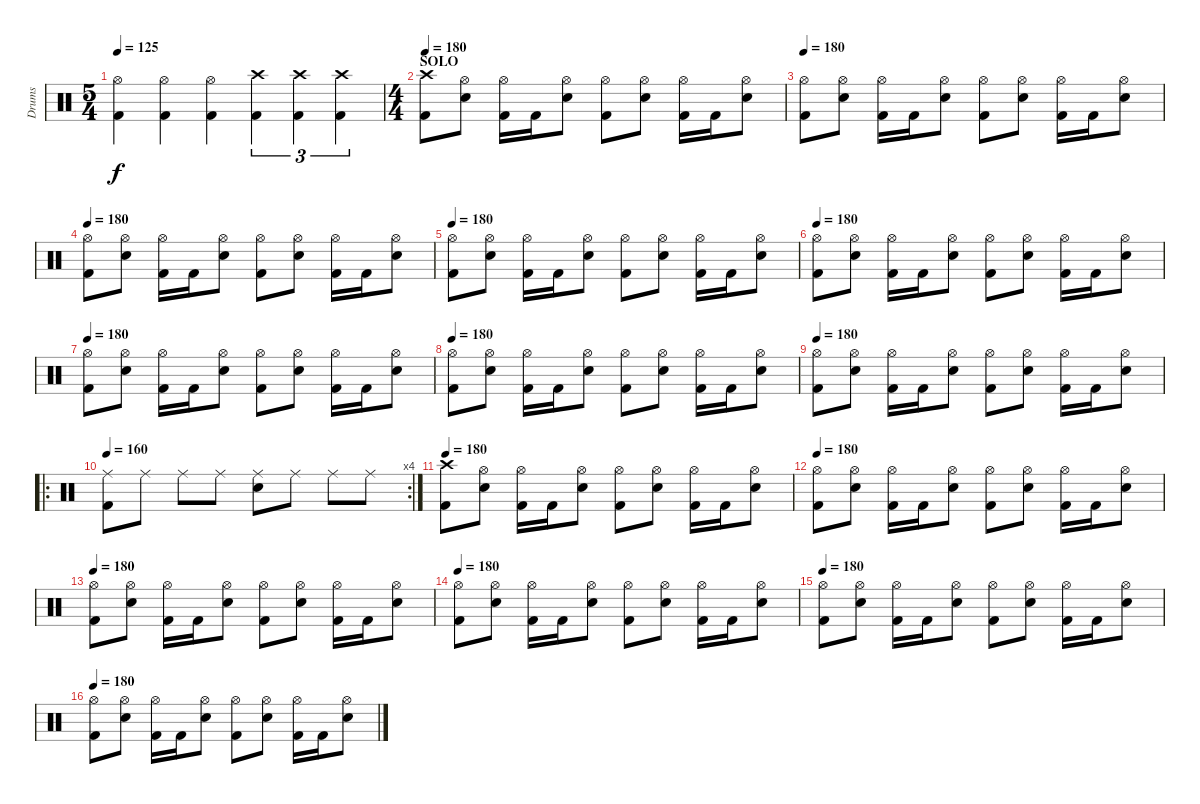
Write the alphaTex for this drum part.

\track ("Drums" "Drums") {instrument percussion}
\staff {score}
\articulation defaults
\ts (5 4)
\tempo 125
\clef neutral
\ks c
("Hi-Hat (open)" "Kick (hit) 2").4{dy f} ("Hi-Hat (open)" "Kick (hit) 2").4 ("Hi-Hat (open)" "Kick (hit) 2").4 ("Crash high (hit)" "Kick (hit) 2").4{tu (3 2)} ("Crash high (hit)" "Kick (hit) 2").4{tu (3 2)} ("Crash high (hit)" "Kick (hit) 2").4{tu (3 2)} |
\ts (4 4)
\section ("" "SOLO")
\tempo 180
("Crash high (hit)" "Kick (hit) 2").8 ("Hi-Hat (open)" "Electric Snare (hit)").8 ("Hi-Hat (open)" "Kick (hit) 2").16 "Kick (hit) 2".16 ("Hi-Hat (open)" "Electric Snare (hit)").8 ("Hi-Hat (open)" "Kick (hit) 2").8 ("Hi-Hat (open)" "Electric Snare (hit)").8 ("Hi-Hat (open)" "Kick (hit) 2").16 "Kick (hit) 2".16 ("Hi-Hat (open)" "Electric Snare (hit)").8 |
\tempo 180
("Hi-Hat (open)" "Kick (hit) 2").8 ("Hi-Hat (open)" "Electric Snare (hit)").8 ("Hi-Hat (open)" "Kick (hit) 2").16 "Kick (hit) 2".16 ("Hi-Hat (open)" "Electric Snare (hit)").8 ("Hi-Hat (open)" "Kick (hit) 2").8 ("Hi-Hat (open)" "Electric Snare (hit)").8 ("Hi-Hat (open)" "Kick (hit) 2").16 "Kick (hit) 2".16 ("Hi-Hat (open)" "Electric Snare (hit)").8 |
\tempo 180
("Hi-Hat (open)" "Kick (hit) 2").8 ("Hi-Hat (open)" "Electric Snare (hit)").8 ("Hi-Hat (open)" "Kick (hit) 2").16 "Kick (hit) 2".16 ("Hi-Hat (open)" "Electric Snare (hit)").8 ("Hi-Hat (open)" "Kick (hit) 2").8 ("Hi-Hat (open)" "Electric Snare (hit)").8 ("Hi-Hat (open)" "Kick (hit) 2").16 "Kick (hit) 2".16 ("Hi-Hat (open)" "Electric Snare (hit)").8 |
\tempo 180
("Hi-Hat (open)" "Kick (hit) 2").8 ("Hi-Hat (open)" "Electric Snare (hit)").8 ("Hi-Hat (open)" "Kick (hit) 2").16 "Kick (hit) 2".16 ("Hi-Hat (open)" "Electric Snare (hit)").8 ("Hi-Hat (open)" "Kick (hit) 2").8 ("Hi-Hat (open)" "Electric Snare (hit)").8 ("Hi-Hat (open)" "Kick (hit) 2").16 "Kick (hit) 2".16 ("Hi-Hat (open)" "Electric Snare (hit)").8 |
\tempo 180
("Hi-Hat (open)" "Kick (hit) 2").8 ("Hi-Hat (open)" "Electric Snare (hit)").8 ("Hi-Hat (open)" "Kick (hit) 2").16 "Kick (hit) 2".16 ("Hi-Hat (open)" "Electric Snare (hit)").8 ("Hi-Hat (open)" "Kick (hit) 2").8 ("Hi-Hat (open)" "Electric Snare (hit)").8 ("Hi-Hat (open)" "Kick (hit) 2").16 "Kick (hit) 2".16 ("Hi-Hat (open)" "Electric Snare (hit)").8 |
\tempo 180
("Hi-Hat (open)" "Kick (hit) 2").8 ("Hi-Hat (open)" "Electric Snare (hit)").8 ("Hi-Hat (open)" "Kick (hit) 2").16 "Kick (hit) 2".16 ("Hi-Hat (open)" "Electric Snare (hit)").8 ("Hi-Hat (open)" "Kick (hit) 2").8 ("Hi-Hat (open)" "Electric Snare (hit)").8 ("Hi-Hat (open)" "Kick (hit) 2").16 "Kick (hit) 2".16 ("Hi-Hat (open)" "Electric Snare (hit)").8 |
\tempo 180
("Hi-Hat (open)" "Kick (hit) 2").8 ("Hi-Hat (open)" "Electric Snare (hit)").8 ("Hi-Hat (open)" "Kick (hit) 2").16 "Kick (hit) 2".16 ("Hi-Hat (open)" "Electric Snare (hit)").8 ("Hi-Hat (open)" "Kick (hit) 2").8 ("Hi-Hat (open)" "Electric Snare (hit)").8 ("Hi-Hat (open)" "Kick (hit) 2").16 "Kick (hit) 2".16 ("Hi-Hat (open)" "Electric Snare (hit)").8 |
\tempo 180
("Hi-Hat (open)" "Kick (hit) 2").8 ("Hi-Hat (open)" "Electric Snare (hit)").8 ("Hi-Hat (open)" "Kick (hit) 2").16 "Kick (hit) 2".16 ("Hi-Hat (open)" "Electric Snare (hit)").8 ("Hi-Hat (open)" "Kick (hit) 2").8 ("Hi-Hat (open)" "Electric Snare (hit)").8 ("Hi-Hat (open)" "Kick (hit) 2").16 "Kick (hit) 2".16 ("Hi-Hat (open)" "Electric Snare (hit)").8 |
\ro
\rc 4
\tempo 180
\tempo 160
("Ride (middle)" "Kick (hit) 2").8 "Ride (middle)".8 "Ride (middle)".8 "Ride (middle)".8 ("Ride (middle)" "Electric Snare (hit)").8 "Ride (middle)".8 "Ride (middle)".8 "Ride (middle)".8 |
\tempo 180
("Crash high (hit)" "Kick (hit) 2").8 ("Hi-Hat (open)" "Electric Snare (hit)").8 ("Hi-Hat (open)" "Kick (hit) 2").16 "Kick (hit) 2".16 ("Hi-Hat (open)" "Electric Snare (hit)").8 ("Hi-Hat (open)" "Kick (hit) 2").8 ("Hi-Hat (open)" "Electric Snare (hit)").8 ("Hi-Hat (open)" "Kick (hit) 2").16 "Kick (hit) 2".16 ("Hi-Hat (open)" "Electric Snare (hit)").8 |
\tempo 180
("Hi-Hat (open)" "Kick (hit) 2").8 ("Hi-Hat (open)" "Electric Snare (hit)").8 ("Hi-Hat (open)" "Kick (hit) 2").16 "Kick (hit) 2".16 ("Hi-Hat (open)" "Electric Snare (hit)").8 ("Hi-Hat (open)" "Kick (hit) 2").8 ("Hi-Hat (open)" "Electric Snare (hit)").8 ("Hi-Hat (open)" "Kick (hit) 2").16 "Kick (hit) 2".16 ("Hi-Hat (open)" "Electric Snare (hit)").8 |
\tempo 180
("Hi-Hat (open)" "Kick (hit) 2").8 ("Hi-Hat (open)" "Electric Snare (hit)").8 ("Hi-Hat (open)" "Kick (hit) 2").16 "Kick (hit) 2".16 ("Hi-Hat (open)" "Electric Snare (hit)").8 ("Hi-Hat (open)" "Kick (hit) 2").8 ("Hi-Hat (open)" "Electric Snare (hit)").8 ("Hi-Hat (open)" "Kick (hit) 2").16 "Kick (hit) 2".16 ("Hi-Hat (open)" "Electric Snare (hit)").8 |
\tempo 180
("Hi-Hat (open)" "Kick (hit) 2").8 ("Hi-Hat (open)" "Electric Snare (hit)").8 ("Hi-Hat (open)" "Kick (hit) 2").16 "Kick (hit) 2".16 ("Hi-Hat (open)" "Electric Snare (hit)").8 ("Hi-Hat (open)" "Kick (hit) 2").8 ("Hi-Hat (open)" "Electric Snare (hit)").8 ("Hi-Hat (open)" "Kick (hit) 2").16 "Kick (hit) 2".16 ("Hi-Hat (open)" "Electric Snare (hit)").8 |
\tempo 180
("Hi-Hat (open)" "Kick (hit) 2").8 ("Hi-Hat (open)" "Electric Snare (hit)").8 ("Hi-Hat (open)" "Kick (hit) 2").16 "Kick (hit) 2".16 ("Hi-Hat (open)" "Electric Snare (hit)").8 ("Hi-Hat (open)" "Kick (hit) 2").8 ("Hi-Hat (open)" "Electric Snare (hit)").8 ("Hi-Hat (open)" "Kick (hit) 2").16 "Kick (hit) 2".16 ("Hi-Hat (open)" "Electric Snare (hit)").8 |
\tempo 180
("Hi-Hat (open)" "Kick (hit) 2").8 ("Hi-Hat (open)" "Electric Snare (hit)").8 ("Hi-Hat (open)" "Kick (hit) 2").16 "Kick (hit) 2".16 ("Hi-Hat (open)" "Electric Snare (hit)").8 ("Hi-Hat (open)" "Kick (hit) 2").8 ("Hi-Hat (open)" "Electric Snare (hit)").8 ("Hi-Hat (open)" "Kick (hit) 2").16 "Kick (hit) 2".16 ("Hi-Hat (open)" "Electric Snare (hit)").8
